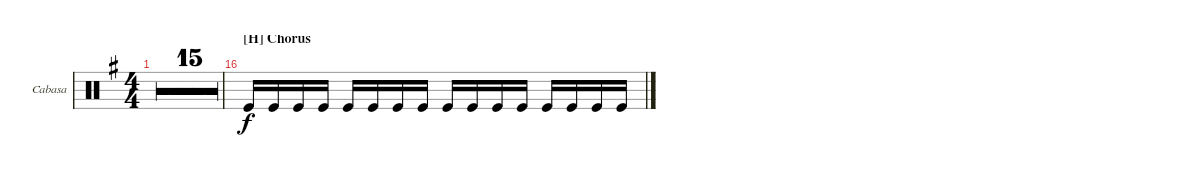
\defaultSystemsLayout 4
\bracketExtendMode groupsimilarinstruments
\firstSystemTrackNameOrientation horizontal
\otherSystemsTrackNameOrientation horizontal
\track ("Cabasa" "Cabasa") {multiBarRest instrument percussion}
\staff {score}
\articulation defaults
\ts (4 4)
\tempo 98
\clef neutral
\ks g
r.1{dy f} |
r.1 |
r.1 |
r.1 |
r.1 |
r.1 |
r.1 |
r.1 |
r.1 |
r.1 |
r.1 |
r.1 |
r.1 |
r.1 |
r.1 |
\section ("H" "Chorus")
"Kick (hit)".16 "Kick (hit)".16 "Kick (hit)".16 "Kick (hit)".16 "Kick (hit)".16 "Kick (hit)".16 "Kick (hit)".16 "Kick (hit)".16 "Kick (hit)".16 "Kick (hit)".16 "Kick (hit)".16 "Kick (hit)".16 "Kick (hit)".16 "Kick (hit)".16 "Kick (hit)".16 "Kick (hit)".16
